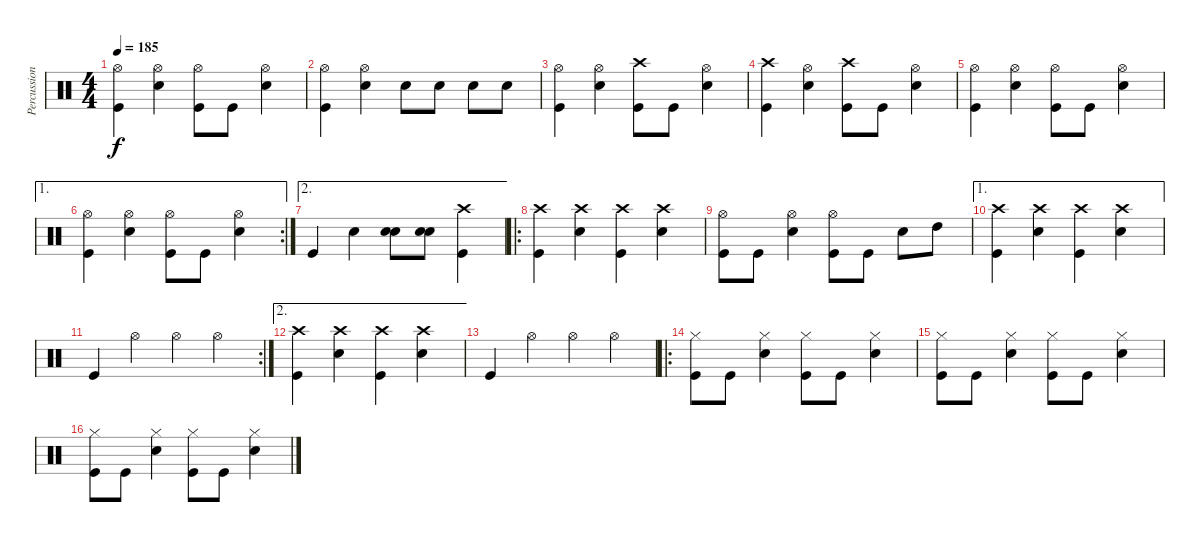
\track ("Percussion" "Percussion") {instrument percussion}
\staff {score}
\articulation defaults
\ts (4 4)
\tempo 185
\clef neutral
\ks c
("Hi-Hat (open)" "Kick (hit)").4{dy f} ("Hi-Hat (open)" "Snare (hit) 2").4 ("Hi-Hat (open)" "Kick (hit)").8 "Kick (hit)".8 ("Hi-Hat (open)" "Snare (hit) 2").4 |
("Hi-Hat (open)" "Kick (hit)").4 ("Hi-Hat (open)" "Snare (hit) 2").4 "Snare (hit) 2".8 "Snare (hit) 2".8 "Snare (hit) 2".8 "Snare (hit) 2".8 |
("Hi-Hat (open)" "Kick (hit)").4 ("Hi-Hat (open)" "Snare (hit) 2").4 ("Crash high (hit)" "Kick (hit)").8 "Kick (hit)".8 ("Hi-Hat (open)" "Snare (hit) 2").4 |
("Crash high (hit)" "Kick (hit)").4 ("Hi-Hat (open)" "Snare (hit) 2").4 ("Crash high (hit)" "Kick (hit)").8 "Kick (hit)".8 ("Hi-Hat (open)" "Snare (hit) 2").4 |
("Hi-Hat (open)" "Kick (hit)").4 ("Hi-Hat (open)" "Snare (hit) 2").4 ("Hi-Hat (open)" "Kick (hit)").8 "Kick (hit)".8 ("Hi-Hat (open)" "Snare (hit) 2").4 |
\ae 1
\rc 2
("Hi-Hat (open)" "Kick (hit)").4 ("Hi-Hat (open)" "Snare (hit) 2").4 ("Hi-Hat (open)" "Kick (hit)").8 "Kick (hit)".8 ("Hi-Hat (open)" "Snare (hit) 2").4 |
\ae 2 "Kick (hit)".4 "Snare (hit) 2".4
("Snare (hit) 2" "Snare (hit) 2").8 ("Snare (hit) 2" "Snare (hit) 2").8 ("Kick (hit)" "Crash high (hit)").4 |
\ro
("Kick (hit)" "Crash high (hit)").4 ("Crash high (hit)" "Snare (hit) 2").4 ("Crash high (hit)" "Kick (hit)").4 ("Crash high (hit)" "Snare (hit) 2").4 |
("Hi-Hat (open)" "Kick (hit)").8 "Kick (hit)".8 ("Hi-Hat (open)" "Snare (hit) 2").4 ("Hi-Hat (open)" "Kick (hit)").8 "Kick (hit)".8 "Snare (hit) 2".8 "High Tom (hit)".8 |
\ae 1
("Kick (hit)" "Crash high (hit)").4 ("Crash high (hit)" "Snare (hit) 2").4 ("Crash high (hit)" "Kick (hit)").4 ("Crash high (hit)" "Snare (hit) 2").4 |
\rc 2 "Kick (hit)".4 "Hi-Hat (open)".4 "Hi-Hat (open)".4 "Hi-Hat (open)".4
|
\ae 2
("Kick (hit)" "Crash high (hit)").4 ("Crash high (hit)" "Snare (hit) 2").4 ("Crash high (hit)" "Kick (hit)").4 ("Crash high (hit)" "Snare (hit) 2").4 |
"Kick (hit)".4 "Hi-Hat (open)".4 "Hi-Hat (open)".4 "Hi-Hat (open)".4 |
\ro
("Hi-Hat (closed)" "Kick (hit)").8 "Kick (hit)".8 ("Hi-Hat (closed)" "Snare (hit) 2").4 ("Hi-Hat (closed)" "Kick (hit)").8 "Kick (hit)".8 ("Hi-Hat (closed)" "Snare (hit) 2").4 |
("Hi-Hat (closed)" "Kick (hit)").8 "Kick (hit)".8 ("Hi-Hat (closed)" "Snare (hit) 2").4 ("Hi-Hat (closed)" "Kick (hit)").8 "Kick (hit)".8 ("Hi-Hat (closed)" "Snare (hit) 2").4 |
("Hi-Hat (closed)" "Kick (hit)").8 "Kick (hit)".8 ("Hi-Hat (closed)" "Snare (hit) 2").4 ("Hi-Hat (closed)" "Kick (hit)").8 "Kick (hit)".8 ("Hi-Hat (closed)" "Snare (hit) 2").4
